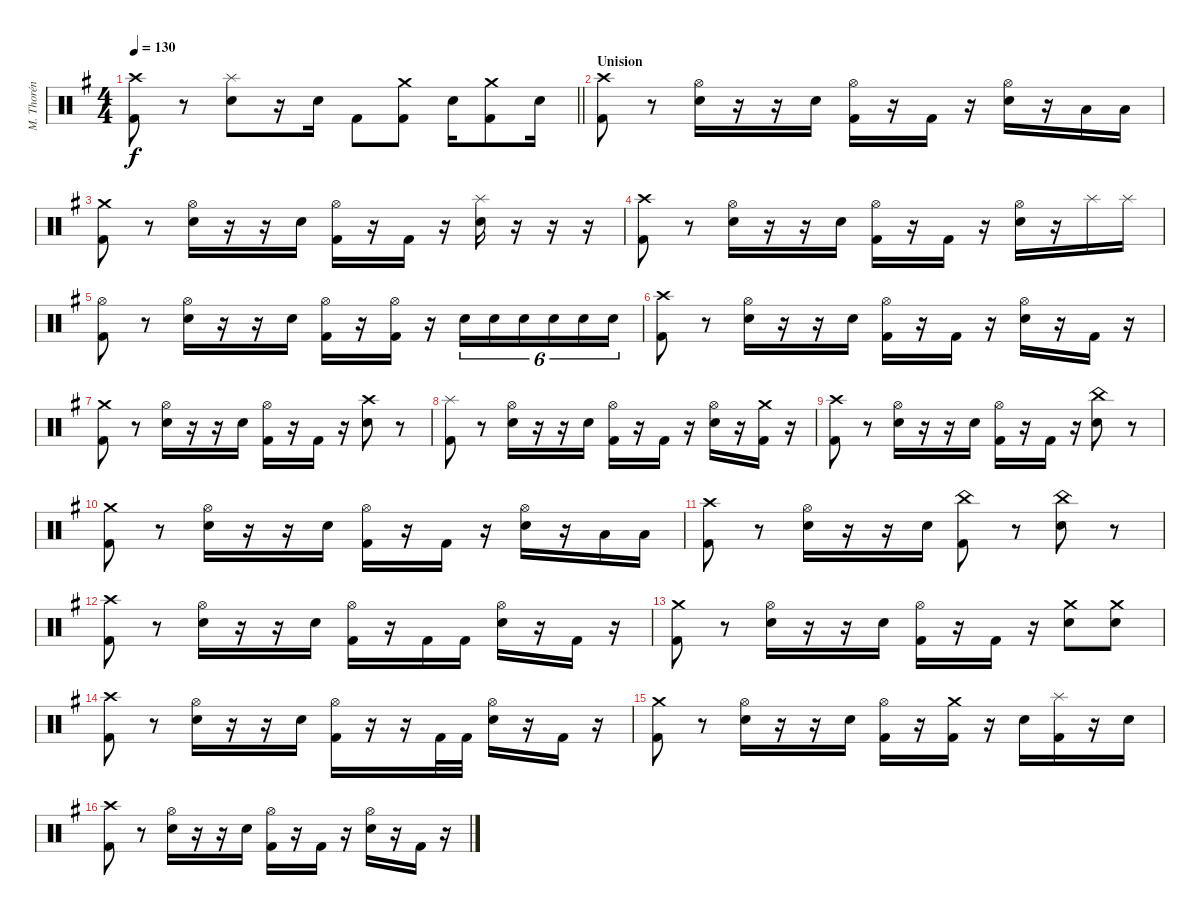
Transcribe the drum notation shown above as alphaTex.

\track ("M. Thorén (Drums)" "M. Thorén ") {instrument percussion}
\staff {score}
\articulation defaults
\ts (4 4)
\tempo 130
\clef neutral
\barLineRight lightlight
\ks eminor
("Crash high (hit)" "Kick (hit) 2").8{dy f} r.8 ("Splash (hit)" "Electric Snare (hit)").8 r.16 "Electric Snare (hit)".16 "Kick (hit) 2".8 ("Crash medium (hit)" "Kick (hit) 2").8 "Electric Snare (hit)".16 ("Crash medium (hit)" "Kick (hit) 2").8 "Electric Snare (hit)".16 |
\section ("" "Unision")
("Crash high (hit)" "Kick (hit) 2").8 r.8 ("Hi-Hat (open)" "Electric Snare (hit)").16 r.16 r.16 "Electric Snare (hit)".16 ("Hi-Hat (open)" "Kick (hit) 2").16 r.16 "Kick (hit) 2".16 r.16 ("Hi-Hat (open)" "Electric Snare (hit)").16 r.16 "Low Tom (hit)".16 "Low Tom (hit)".16 |
("Crash medium (hit)" "Kick (hit) 2").8 r.8 ("Hi-Hat (open)" "Electric Snare (hit)").16 r.16 r.16 "Electric Snare (hit)".16 ("Hi-Hat (open)" "Kick (hit) 2").16 r.16 "Kick (hit) 2".16 r.16 ("Splash (hit)" "Electric Snare (hit)").16 r.16 r.16 r.16 |
("Crash high (hit)" "Kick (hit) 2").8 r.8 ("Hi-Hat (open)" "Electric Snare (hit)").16 r.16 r.16 "Electric Snare (hit)".16 ("Hi-Hat (open)" "Kick (hit) 2").16 r.16 "Kick (hit) 2".16 r.16 ("Hi-Hat (open)" "Electric Snare (hit)").16 r.16 "Splash (hit)".16 "Splash (hit)".16 |
("Hi-Hat (open)" "Kick (hit) 2").8 r.8 ("Hi-Hat (open)" "Electric Snare (hit)").16 r.16 r.16 "Electric Snare (hit)".16 ("Hi-Hat (open)" "Kick (hit) 2").16 r.16 ("Hi-Hat (open)" "Kick (hit) 2").16 r.16 "Electric Snare (hit)".16{tu (6 4)} "Electric Snare (hit)".16{tu (6 4)} "Electric Snare (hit)".16{tu (6 4)} "Electric Snare (hit)".16{tu (6 4)} "Electric Snare (hit)".16{tu (6 4)} "Electric Snare (hit)".16{tu (6 4)} |
("Crash high (hit)" "Kick (hit) 2").8 r.8 ("Hi-Hat (open)" "Electric Snare (hit)").16 r.16 r.16 "Electric Snare (hit)".16 ("Hi-Hat (open)" "Kick (hit) 2").16 r.16 "Kick (hit) 2".16 r.16 ("Hi-Hat (open)" "Electric Snare (hit)").16 r.16 "Kick (hit) 2".16 r.16 |
("Crash medium (hit)" "Kick (hit) 2").8 r.8 ("Hi-Hat (open)" "Electric Snare (hit)").16 r.16 r.16 "Electric Snare (hit)".16 ("Hi-Hat (open)" "Kick (hit) 2").16 r.16 "Kick (hit) 2".16 r.16 ("Crash high (hit)" "Electric Snare (hit)").8 r.8 |
("Splash (hit)" "Kick (hit) 2").8 r.8 ("Hi-Hat (open)" "Electric Snare (hit)").16 r.16 r.16 "Electric Snare (hit)".16 ("Hi-Hat (open)" "Kick (hit) 2").16 r.16 "Kick (hit) 2".16 r.16 ("Hi-Hat (open)" "Electric Snare (hit)").16 r.16 ("Crash medium (hit)" "Kick (hit) 2").16 r.16 |
("Crash high (hit)" "Kick (hit) 2").8 r.8 ("Hi-Hat (open)" "Electric Snare (hit)").16 r.16 r.16 "Electric Snare (hit)".16 ("Hi-Hat (open)" "Kick (hit) 2").16 r.16 "Kick (hit) 2".16 r.16 ("China (hit)" "Electric Snare (hit)").8 r.8 |
("Crash medium (hit)" "Kick (hit) 2").8 r.8 ("Hi-Hat (open)" "Electric Snare (hit)").16 r.16 r.16 "Electric Snare (hit)".16 ("Hi-Hat (open)" "Kick (hit) 2").16 r.16 "Kick (hit) 2".16 r.16 ("Hi-Hat (open)" "Electric Snare (hit)").16 r.16 "Low Tom (hit)".16 "Low Tom (hit)".16 |
("Crash high (hit)" "Kick (hit) 2").8 r.8 ("Hi-Hat (open)" "Electric Snare (hit)").16 r.16 r.16 "Electric Snare (hit)".16 ("China (hit)" "Kick (hit) 2").8 r.8 ("China (hit)" "Electric Snare (hit)").8 r.8 |
("Crash high (hit)" "Kick (hit) 2").8 r.8 ("Hi-Hat (open)" "Electric Snare (hit)").16 r.16 r.16 "Electric Snare (hit)".16 ("Hi-Hat (open)" "Kick (hit) 2").16 r.16 "Kick (hit) 2".16 "Kick (hit) 2".16 ("Hi-Hat (open)" "Electric Snare (hit)").16 r.16 "Kick (hit) 2".16 r.16 |
("Crash medium (hit)" "Kick (hit) 2").8 r.8 ("Hi-Hat (open)" "Electric Snare (hit)").16 r.16 r.16 "Electric Snare (hit)".16 ("Hi-Hat (open)" "Kick (hit) 2").16 r.16 "Kick (hit) 2".16 r.16 ("Crash medium (hit)" "Electric Snare (hit)").8 ("Crash medium (hit)" "Electric Snare (hit)").8 |
("Crash high (hit)" "Kick (hit) 2").8 r.8 ("Hi-Hat (open)" "Electric Snare (hit)").16 r.16 r.16 "Electric Snare (hit)".16 ("Hi-Hat (open)" "Kick (hit) 2").16 r.16 r.16 "Kick (hit) 2".32 "Kick (hit) 2".32 ("Hi-Hat (open)" "Electric Snare (hit)").16 r.16 "Kick (hit) 2".16 r.16 |
("Crash medium (hit)" "Kick (hit) 2").8 r.8 ("Hi-Hat (open)" "Electric Snare (hit)").16 r.16 r.16 "Electric Snare (hit)".16 ("Hi-Hat (open)" "Kick (hit) 2").16 r.16 ("Crash medium (hit)" "Kick (hit) 2").16 r.16 "Electric Snare (hit)".16 ("Splash (hit)" "Kick (hit) 2").16 r.16 "Electric Snare (hit)".16 |
("Crash high (hit)" "Kick (hit) 2").8 r.8 ("Hi-Hat (open)" "Electric Snare (hit)").16 r.16 r.16 "Electric Snare (hit)".16 ("Hi-Hat (open)" "Kick (hit) 2").16 r.16 "Kick (hit) 2".16 r.16 ("Hi-Hat (open)" "Electric Snare (hit)").16 r.16 "Kick (hit) 2".16 r.16
